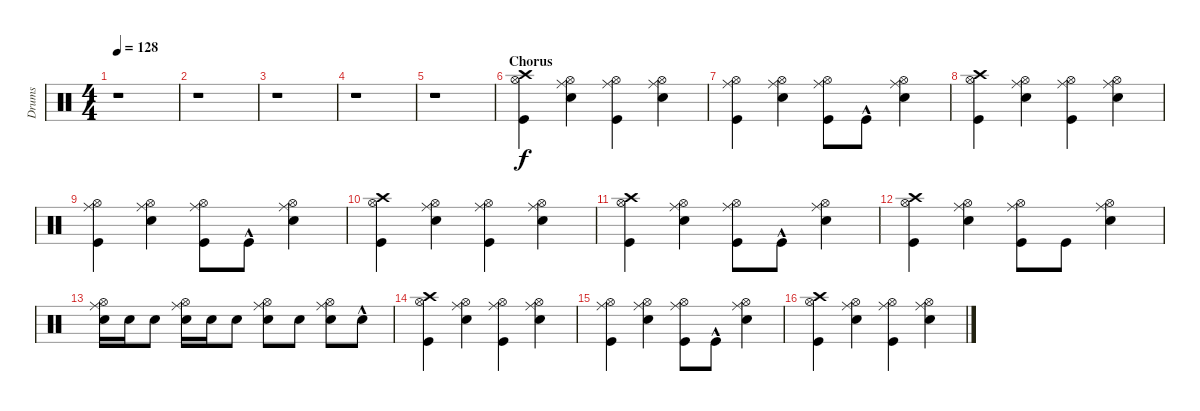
\track ("Drums" "Drums") {instrument percussion}
\staff {score}
\articulation defaults
\ts (4 4)
\tempo 128
\clef neutral
\ks c
r.1{dy f} |
r.1 |
r.1 |
r.1 |
r.1 |
\section ("" "Chorus")
("Kick (hit)" "Hi-Hat (open)" "Crash high (hit)").4 ("Snare (hit) 2" "Hi-Hat (open)" "Ride (middle)").4 ("Kick (hit)" "Hi-Hat (open)" "Ride (middle)").4 ("Snare (hit) 2" "Hi-Hat (open)" "Ride (middle)").4 |
("Kick (hit)" "Hi-Hat (open)" "Ride (middle)").4 ("Snare (hit) 2" "Hi-Hat (open)" "Ride (middle)").4 ("Kick (hit)" "Hi-Hat (open)" "Ride (middle)").8 "Kick (hit)"{hac}.8 ("Snare (hit) 2" "Hi-Hat (open)" "Ride (middle)").4 |
("Kick (hit)" "Hi-Hat (open)" "Crash high (hit)").4 ("Snare (hit) 2" "Hi-Hat (open)" "Ride (middle)").4 ("Kick (hit)" "Hi-Hat (open)" "Ride (middle)").4 ("Snare (hit) 2" "Hi-Hat (open)" "Ride (middle)").4 |
("Kick (hit)" "Hi-Hat (open)" "Ride (middle)").4 ("Snare (hit) 2" "Hi-Hat (open)" "Ride (middle)").4 ("Kick (hit)" "Hi-Hat (open)" "Ride (middle)").8 "Kick (hit)"{hac}.8 ("Snare (hit) 2" "Hi-Hat (open)" "Ride (middle)").4 |
("Kick (hit)" "Hi-Hat (open)" "Crash high (hit)").4 ("Snare (hit) 2" "Hi-Hat (open)" "Ride (middle)").4 ("Kick (hit)" "Hi-Hat (open)" "Ride (middle)").4 ("Snare (hit) 2" "Hi-Hat (open)" "Ride (middle)").4 |
("Kick (hit)" "Hi-Hat (open)" "Crash high (hit)").4 ("Snare (hit) 2" "Hi-Hat (open)" "Ride (middle)").4 ("Kick (hit)" "Hi-Hat (open)" "Ride (middle)").8 "Kick (hit)"{hac}.8 ("Snare (hit) 2" "Hi-Hat (open)" "Ride (middle)").4 |
("Kick (hit)" "Hi-Hat (open)" "Crash high (hit)").4 ("Snare (hit) 2" "Hi-Hat (open)" "Ride (middle)").4 ("Kick (hit)" "Hi-Hat (open)" "Ride (middle)").8 "Kick (hit)".8 ("Snare (hit) 2" "Hi-Hat (open)" "Ride (middle)").4 |
("Snare (hit) 2" "Hi-Hat (open)" "Ride (middle)").16 "Snare (hit) 2".16 "Snare (hit) 2".8 ("Snare (hit) 2" "Hi-Hat (open)" "Ride (middle)").16 "Snare (hit) 2".16 "Snare (hit) 2".8 ("Snare (hit) 2" "Hi-Hat (open)" "Ride (middle)").8 "Snare (hit) 2".8 ("Snare (hit) 2" "Hi-Hat (open)" "Ride (middle)").8 "Snare (hit) 2"{hac}.8 |
("Kick (hit)" "Hi-Hat (open)" "Crash high (hit)").4 ("Snare (hit) 2" "Hi-Hat (open)" "Ride (middle)").4 ("Kick (hit)" "Hi-Hat (open)" "Ride (middle)").4 ("Snare (hit) 2" "Hi-Hat (open)" "Ride (middle)").4 |
("Kick (hit)" "Hi-Hat (open)" "Ride (middle)").4 ("Snare (hit) 2" "Hi-Hat (open)" "Ride (middle)").4 ("Kick (hit)" "Hi-Hat (open)" "Ride (middle)").8 "Kick (hit)"{hac}.8 ("Snare (hit) 2" "Hi-Hat (open)" "Ride (middle)").4 |
("Kick (hit)" "Hi-Hat (open)" "Crash high (hit)").4 ("Snare (hit) 2" "Hi-Hat (open)" "Ride (middle)").4 ("Kick (hit)" "Hi-Hat (open)" "Ride (middle)").4 ("Snare (hit) 2" "Hi-Hat (open)" "Ride (middle)").4
